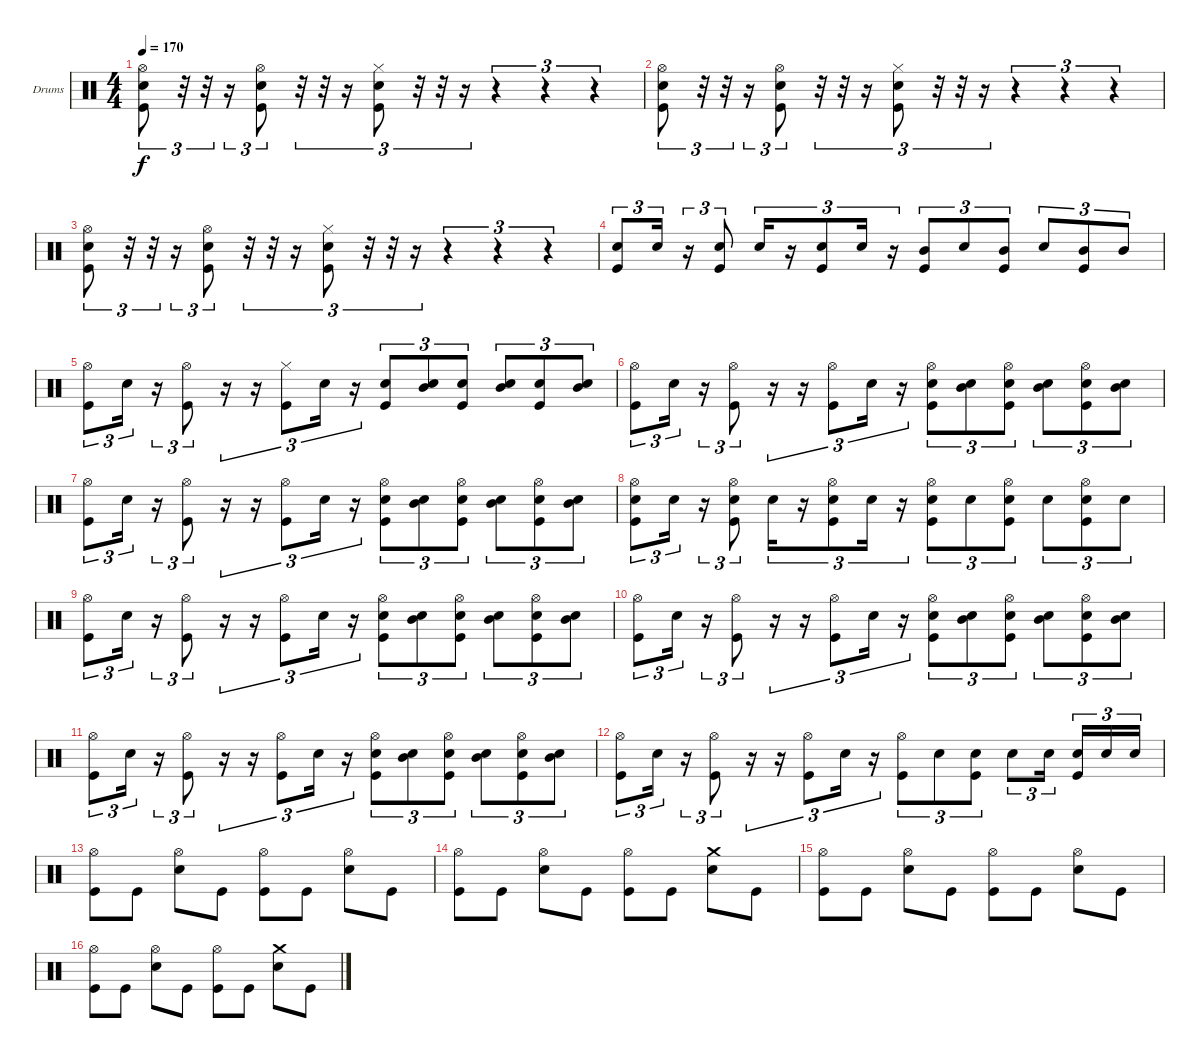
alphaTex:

\bracketExtendMode groupsimilarinstruments
\firstSystemTrackNameOrientation horizontal
\otherSystemsTrackNameOrientation horizontal
\track ("Drumkit" "Drums") {instrument percussion}
\staff {score}
\articulation defaults
\ts (4 4)
\tempo 170
\clef neutral
\ks c
("Hi-Hat (open)" "Snare (hit) 2" "Kick (hit)").8{tu (3 2) dy f} r.32{tu (3 2)} r.32{tu (3 2)} r.16{tu (3 2)} ("Hi-Hat (open)" "Snare (hit) 2" "Kick (hit)").8{tu (3 2)} r.32{tu (3 2)} r.32{tu (3 2)} r.16{tu (3 2)} ("Hi-Hat (closed)" "Snare (hit) 2" "Kick (hit)").8{tu (3 2)} r.32{tu (3 2)} r.32{tu (3 2)} r.16{tu (3 2)} r.4{tu (3 2)} r.4{tu (3 2)} r.4{tu (3 2)} |
("Hi-Hat (open)" "Snare (hit) 2" "Kick (hit)").8{tu (3 2)} r.32{tu (3 2)} r.32{tu (3 2)} r.16{tu (3 2)} ("Hi-Hat (open)" "Snare (hit) 2" "Kick (hit)").8{tu (3 2)} r.32{tu (3 2)} r.32{tu (3 2)} r.16{tu (3 2)} ("Hi-Hat (closed)" "Snare (hit) 2" "Kick (hit)").8{tu (3 2)} r.32{tu (3 2)} r.32{tu (3 2)} r.16{tu (3 2)} r.4{tu (3 2)} r.4{tu (3 2)} r.4{tu (3 2)} |
("Hi-Hat (open)" "Snare (hit) 2" "Kick (hit)").8{tu (3 2)} r.32{tu (3 2)} r.32{tu (3 2)} r.16{tu (3 2)} ("Hi-Hat (open)" "Snare (hit) 2" "Kick (hit)").8{tu (3 2)} r.32{tu (3 2)} r.32{tu (3 2)} r.16{tu (3 2)} ("Hi-Hat (closed)" "Snare (hit) 2" "Kick (hit)").8{tu (3 2)} r.32{tu (3 2)} r.32{tu (3 2)} r.16{tu (3 2)} r.4{tu (3 2)} r.4{tu (3 2)} r.4{tu (3 2)} |
("Snare (hit) 2" "Kick (hit)").8{tu (3 2)} "Snare (hit) 2".16{tu (3 2)} r.16{tu (3 2)} ("Snare (hit) 2" "Kick (hit)").8{tu (3 2)} "Snare (hit) 2".16{tu (3 2)} r.16{tu (3 2)} ("Snare (hit) 2" "Kick (hit)").8{tu (3 2)} "Snare (hit) 2".16{tu (3 2)} r.16{tu (3 2)} ("Mid Tom (hit)" "Kick (hit)").8{tu (3 2)} "Snare (hit) 2".8{tu (3 2)} ("Mid Tom (hit)" "Kick (hit)").8{tu (3 2)} "Snare (hit) 2".8{tu (3 2)} ("Mid Tom (hit)" "Kick (hit)").8{tu (3 2)} "Mid Tom (hit)".8{tu (3 2)} |
("Hi-Hat (open)" "Kick (hit)").8{tu (3 2)} "Snare (hit) 2".16{tu (3 2)} r.16{tu (3 2)} ("Hi-Hat (open)" "Kick (hit)").8{tu (3 2)} r.16{tu (3 2)} r.16{tu (3 2)} ("Hi-Hat (closed)" "Kick (hit)").8{tu (3 2)} "Snare (hit) 2".16{tu (3 2)} r.16{tu (3 2)} ("Snare (hit) 2" "Kick (hit)").8{tu (3 2)} ("Mid Tom (hit)" "Snare (hit) 2").8{tu (3 2)} ("Snare (hit) 2" "Kick (hit)").8{tu (3 2)} ("Mid Tom (hit)" "Snare (hit) 2").8{tu (3 2)} ("Snare (hit) 2" "Kick (hit)").8{tu (3 2)} ("Mid Tom (hit)" "Snare (hit) 2").8{tu (3 2)} |
("Hi-Hat (open)" "Kick (hit)").8{tu (3 2)} "Snare (hit) 2".16{tu (3 2)} r.16{tu (3 2)} ("Hi-Hat (open)" "Kick (hit)").8{tu (3 2)} r.16{tu (3 2)} r.16{tu (3 2)} ("Hi-Hat (open)" "Kick (hit)").8{tu (3 2)} "Snare (hit) 2".16{tu (3 2)} r.16{tu (3 2)} ("Hi-Hat (open)" "Snare (hit) 2" "Kick (hit)").8{tu (3 2)} ("Mid Tom (hit)" "Snare (hit) 2").8{tu (3 2)} ("Hi-Hat (open)" "Snare (hit) 2" "Kick (hit)").8{tu (3 2)} ("Mid Tom (hit)" "Snare (hit) 2").8{tu (3 2)} ("Hi-Hat (open)" "Snare (hit) 2" "Kick (hit)").8{tu (3 2)} ("Mid Tom (hit)" "Snare (hit) 2").8{tu (3 2)} |
("Hi-Hat (open)" "Kick (hit)").8{tu (3 2)} "Snare (hit) 2".16{tu (3 2)} r.16{tu (3 2)} ("Hi-Hat (open)" "Kick (hit)").8{tu (3 2)} r.16{tu (3 2)} r.16{tu (3 2)} ("Hi-Hat (open)" "Kick (hit)").8{tu (3 2)} "Snare (hit) 2".16{tu (3 2)} r.16{tu (3 2)} ("Hi-Hat (open)" "Snare (hit) 2" "Kick (hit)").8{tu (3 2)} ("Mid Tom (hit)" "Snare (hit) 2").8{tu (3 2)} ("Hi-Hat (open)" "Snare (hit) 2" "Kick (hit)").8{tu (3 2)} ("Mid Tom (hit)" "Snare (hit) 2").8{tu (3 2)} ("Hi-Hat (open)" "Snare (hit) 2" "Kick (hit)").8{tu (3 2)} ("Mid Tom (hit)" "Snare (hit) 2").8{tu (3 2)} |
("Hi-Hat (open)" "Snare (hit) 2" "Kick (hit)").8{tu (3 2)} "Snare (hit) 2".16{tu (3 2)} r.16{tu (3 2)} ("Hi-Hat (open)" "Snare (hit) 2" "Kick (hit)").8{tu (3 2)} "Snare (hit) 2".16{tu (3 2)} r.16{tu (3 2)} ("Hi-Hat (open)" "Snare (hit) 2" "Kick (hit)").8{tu (3 2)} "Snare (hit) 2".16{tu (3 2)} r.16{tu (3 2)} ("Hi-Hat (open)" "Snare (hit) 2" "Kick (hit)").8{tu (3 2)} "Snare (hit) 2".8{tu (3 2)} ("Hi-Hat (open)" "Snare (hit) 2" "Kick (hit)").8{tu (3 2)} "Snare (hit) 2".8{tu (3 2)} ("Hi-Hat (open)" "Snare (hit) 2" "Kick (hit)").8{tu (3 2)} "Snare (hit) 2".8{tu (3 2)} |
("Hi-Hat (open)" "Kick (hit)").8{tu (3 2)} "Snare (hit) 2".16{tu (3 2)} r.16{tu (3 2)} ("Hi-Hat (open)" "Kick (hit)").8{tu (3 2)} r.16{tu (3 2)} r.16{tu (3 2)} ("Hi-Hat (open)" "Kick (hit)").8{tu (3 2)} "Snare (hit) 2".16{tu (3 2)} r.16{tu (3 2)} ("Hi-Hat (open)" "Snare (hit) 2" "Kick (hit)").8{tu (3 2)} ("Mid Tom (hit)" "Snare (hit) 2").8{tu (3 2)} ("Hi-Hat (open)" "Snare (hit) 2" "Kick (hit)").8{tu (3 2)} ("Mid Tom (hit)" "Snare (hit) 2").8{tu (3 2)} ("Hi-Hat (open)" "Snare (hit) 2" "Kick (hit)").8{tu (3 2)} ("Mid Tom (hit)" "Snare (hit) 2").8{tu (3 2)} |
("Hi-Hat (open)" "Kick (hit)").8{tu (3 2)} "Snare (hit) 2".16{tu (3 2)} r.16{tu (3 2)} ("Hi-Hat (open)" "Kick (hit)").8{tu (3 2)} r.16{tu (3 2)} r.16{tu (3 2)} ("Hi-Hat (open)" "Kick (hit)").8{tu (3 2)} "Snare (hit) 2".16{tu (3 2)} r.16{tu (3 2)} ("Hi-Hat (open)" "Snare (hit) 2" "Kick (hit)").8{tu (3 2)} ("Mid Tom (hit)" "Snare (hit) 2").8{tu (3 2)} ("Hi-Hat (open)" "Snare (hit) 2" "Kick (hit)").8{tu (3 2)} ("Mid Tom (hit)" "Snare (hit) 2").8{tu (3 2)} ("Hi-Hat (open)" "Snare (hit) 2" "Kick (hit)").8{tu (3 2)} ("Mid Tom (hit)" "Snare (hit) 2").8{tu (3 2)} |
("Hi-Hat (open)" "Kick (hit)").8{tu (3 2)} "Snare (hit) 2".16{tu (3 2)} r.16{tu (3 2)} ("Hi-Hat (open)" "Kick (hit)").8{tu (3 2)} r.16{tu (3 2)} r.16{tu (3 2)} ("Hi-Hat (open)" "Kick (hit)").8{tu (3 2)} "Snare (hit) 2".16{tu (3 2)} r.16{tu (3 2)} ("Hi-Hat (open)" "Snare (hit) 2" "Kick (hit)").8{tu (3 2)} ("Mid Tom (hit)" "Snare (hit) 2").8{tu (3 2)} ("Hi-Hat (open)" "Snare (hit) 2" "Kick (hit)").8{tu (3 2)} ("Mid Tom (hit)" "Snare (hit) 2").8{tu (3 2)} ("Hi-Hat (open)" "Snare (hit) 2" "Kick (hit)").8{tu (3 2)} ("Mid Tom (hit)" "Snare (hit) 2").8{tu (3 2)} |
("Hi-Hat (open)" "Kick (hit)").8{tu (3 2)} "Snare (hit) 2".16{tu (3 2)} r.16{tu (3 2)} ("Hi-Hat (open)" "Kick (hit)").8{tu (3 2)} r.16{tu (3 2)} r.16{tu (3 2)} ("Hi-Hat (open)" "Kick (hit)").8{tu (3 2)} "Snare (hit) 2".16{tu (3 2)} r.16{tu (3 2)} ("Hi-Hat (open)" "Kick (hit)").8{tu (3 2)} "Snare (hit) 2".8{tu (3 2)} ("Snare (hit) 2" "Kick (hit)").8{tu (3 2)} "Snare (hit) 2".8{tu (3 2)} "Snare (hit) 2".16{tu (3 2)} ("Snare (hit) 2" "Kick (hit)").16{tu (3 2)} "Snare (hit) 2".16{tu (3 2)} "Snare (hit) 2".16{tu (3 2)} |
("Hi-Hat (open)" "Kick (hit)").8 "Kick (hit)".8 ("Hi-Hat (open)" "Snare (hit) 2").8 "Kick (hit)".8 ("Hi-Hat (open)" "Kick (hit)").8 "Kick (hit)".8 ("Hi-Hat (open)" "Snare (hit) 2").8 "Kick (hit)".8 |
("Hi-Hat (open)" "Kick (hit)").8 "Kick (hit)".8 ("Hi-Hat (open)" "Snare (hit) 2").8 "Kick (hit)".8 ("Hi-Hat (open)" "Kick (hit)").8 "Kick (hit)".8 ("Crash medium (hit)" "Snare (hit) 2").8 "Kick (hit)".8 |
("Hi-Hat (open)" "Kick (hit)").8 "Kick (hit)".8 ("Hi-Hat (open)" "Snare (hit) 2").8 "Kick (hit)".8 ("Hi-Hat (open)" "Kick (hit)").8 "Kick (hit)".8 ("Hi-Hat (open)" "Snare (hit) 2").8 "Kick (hit)".8 |
("Hi-Hat (open)" "Kick (hit)").8 "Kick (hit)".8 ("Hi-Hat (open)" "Snare (hit) 2").8 "Kick (hit)".8 ("Hi-Hat (open)" "Kick (hit)").8 "Kick (hit)".8 ("Crash medium (hit)" "Snare (hit) 2").8 "Kick (hit)".8
